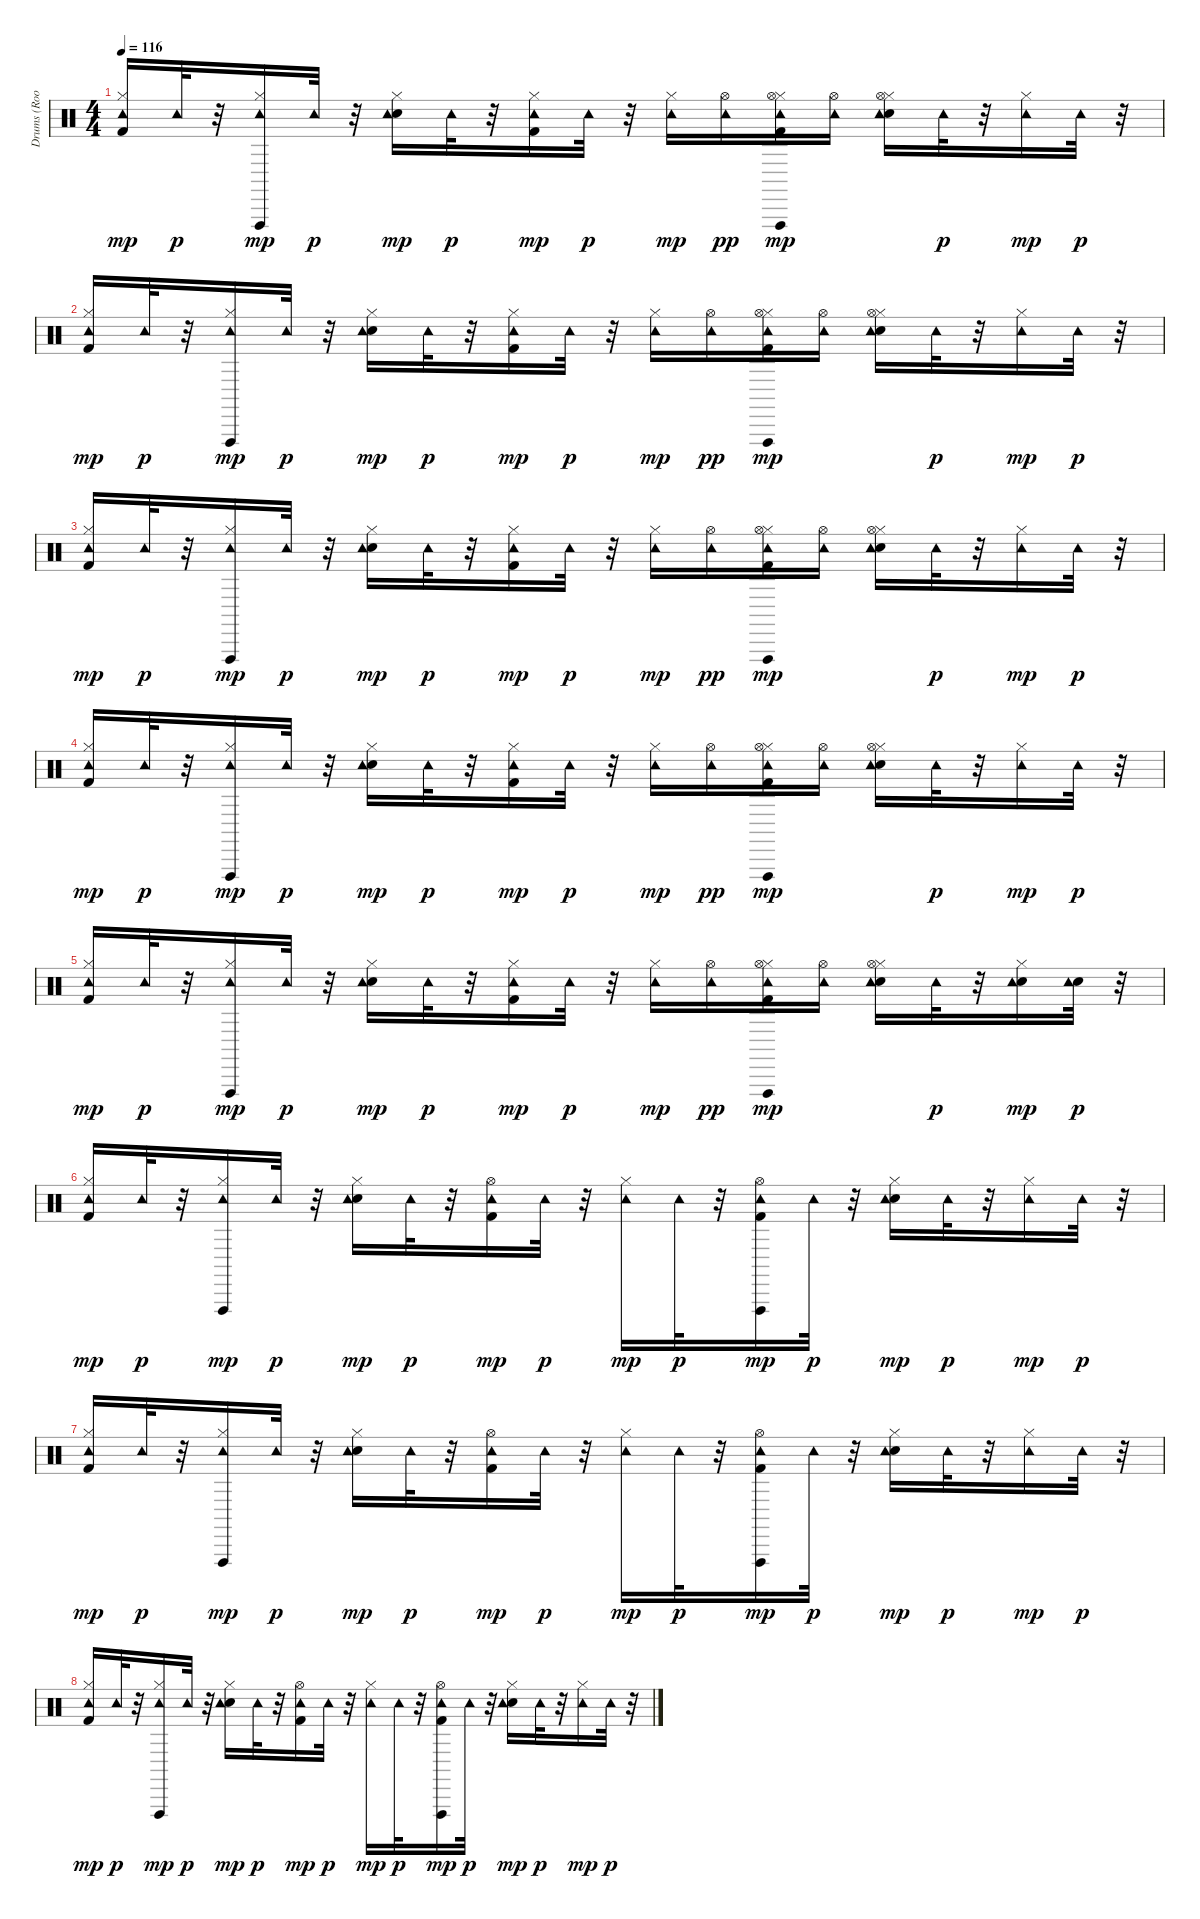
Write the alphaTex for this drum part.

\track ("Drums (Room Kit)    " "Drums (Roo") {instrument percussion}
\staff {score}
\articulation defaults
\ts (4 4)
\tempo 116
\clef neutral
\ks c
("Hi-Hat (closed)" "Kick (hit) 2" "Tambourine (hit)").16{dy mp} "Tambourine (hit)".32{dy p} r.32 ("Hi-Hat (closed)" "Tambourine (hit)" "Vibraslap (hit)").16{dy mp} "Tambourine (hit)".32{dy p} r.32 ("Hi-Hat (closed)" "Snare (hit) 2" "Tambourine (hit)").16{dy mp} "Tambourine (hit)".32{dy p} r.32 ("Hi-Hat (closed)" "Kick (hit) 2" "Tambourine (hit)").16{dy mp} "Tambourine (hit)".32{dy p} r.32 ("Hi-Hat (closed)" "Tambourine (hit)").16{dy mp} ("Tambourine (hit)" "Hi-Hat (open)").16{dy pp} ("Hi-Hat (closed)" "Kick (hit) 2" "Tambourine (hit)" "Hi-Hat (open)" "Vibraslap (hit)").16{dy mp} ("Tambourine (hit)" "Hi-Hat (open)").16 ("Hi-Hat (closed)" "Snare (hit) 2" "Tambourine (hit)" "Hi-Hat (open)").16 "Tambourine (hit)".32{dy p} r.32 ("Hi-Hat (closed)" "Tambourine (hit)").16{dy mp} "Tambourine (hit)".32{dy p} r.32 |
("Kick (hit) 2" "Hi-Hat (closed)" "Tambourine (hit)").16{dy mp} "Tambourine (hit)".32{dy p} r.32 ("Hi-Hat (closed)" "Tambourine (hit)" "Vibraslap (hit)").16{dy mp} "Tambourine (hit)".32{dy p} r.32 ("Snare (hit) 2" "Hi-Hat (closed)" "Tambourine (hit)").16{dy mp} "Tambourine (hit)".32{dy p} r.32 ("Kick (hit) 2" "Hi-Hat (closed)" "Tambourine (hit)").16{dy mp} "Tambourine (hit)".32{dy p} r.32 ("Hi-Hat (closed)" "Tambourine (hit)").16{dy mp} ("Tambourine (hit)" "Hi-Hat (open)").16{dy pp} ("Kick (hit) 2" "Hi-Hat (closed)" "Tambourine (hit)" "Hi-Hat (open)" "Vibraslap (hit)").16{dy mp} ("Tambourine (hit)" "Hi-Hat (open)").16 ("Snare (hit) 2" "Hi-Hat (closed)" "Tambourine (hit)" "Hi-Hat (open)").16 "Tambourine (hit)".32{dy p} r.32 ("Hi-Hat (closed)" "Tambourine (hit)").16{dy mp} "Tambourine (hit)".32{dy p} r.32 |
("Hi-Hat (closed)" "Kick (hit) 2" "Tambourine (hit)").16{dy mp} "Tambourine (hit)".32{dy p} r.32 ("Hi-Hat (closed)" "Tambourine (hit)" "Vibraslap (hit)").16{dy mp} "Tambourine (hit)".32{dy p} r.32 ("Hi-Hat (closed)" "Snare (hit) 2" "Tambourine (hit)").16{dy mp} "Tambourine (hit)".32{dy p} r.32 ("Hi-Hat (closed)" "Kick (hit) 2" "Tambourine (hit)").16{dy mp} "Tambourine (hit)".32{dy p} r.32 ("Hi-Hat (closed)" "Tambourine (hit)").16{dy mp} ("Tambourine (hit)" "Hi-Hat (open)").16{dy pp} ("Hi-Hat (closed)" "Kick (hit) 2" "Tambourine (hit)" "Hi-Hat (open)" "Vibraslap (hit)").16{dy mp} ("Tambourine (hit)" "Hi-Hat (open)").16 ("Hi-Hat (closed)" "Snare (hit) 2" "Tambourine (hit)" "Hi-Hat (open)").16 "Tambourine (hit)".32{dy p} r.32 ("Hi-Hat (closed)" "Tambourine (hit)").16{dy mp} "Tambourine (hit)".32{dy p} r.32 |
("Kick (hit) 2" "Hi-Hat (closed)" "Tambourine (hit)").16{dy mp} "Tambourine (hit)".32{dy p} r.32 ("Hi-Hat (closed)" "Tambourine (hit)" "Vibraslap (hit)").16{dy mp} "Tambourine (hit)".32{dy p} r.32 ("Snare (hit) 2" "Hi-Hat (closed)" "Tambourine (hit)").16{dy mp} "Tambourine (hit)".32{dy p} r.32 ("Kick (hit) 2" "Hi-Hat (closed)" "Tambourine (hit)").16{dy mp} "Tambourine (hit)".32{dy p} r.32 ("Hi-Hat (closed)" "Tambourine (hit)").16{dy mp} ("Tambourine (hit)" "Hi-Hat (open)").16{dy pp} ("Kick (hit) 2" "Hi-Hat (closed)" "Tambourine (hit)" "Hi-Hat (open)" "Vibraslap (hit)").16{dy mp} ("Tambourine (hit)" "Hi-Hat (open)").16 ("Snare (hit) 2" "Hi-Hat (closed)" "Tambourine (hit)" "Hi-Hat (open)").16 "Tambourine (hit)".32{dy p} r.32 ("Hi-Hat (closed)" "Tambourine (hit)").16{dy mp} "Tambourine (hit)".32{dy p} r.32 |
("Hi-Hat (closed)" "Kick (hit) 2" "Tambourine (hit)").16{dy mp} "Tambourine (hit)".32{dy p} r.32 ("Hi-Hat (closed)" "Tambourine (hit)" "Vibraslap (hit)").16{dy mp} "Tambourine (hit)".32{dy p} r.32 ("Hi-Hat (closed)" "Snare (hit) 2" "Tambourine (hit)").16{dy mp} "Tambourine (hit)".32{dy p} r.32 ("Hi-Hat (closed)" "Kick (hit) 2" "Tambourine (hit)").16{dy mp} "Tambourine (hit)".32{dy p} r.32 ("Hi-Hat (closed)" "Tambourine (hit)").16{dy mp} ("Tambourine (hit)" "Hi-Hat (open)").16{dy pp} ("Hi-Hat (closed)" "Kick (hit) 2" "Tambourine (hit)" "Hi-Hat (open)" "Vibraslap (hit)").16{dy mp} ("Tambourine (hit)" "Hi-Hat (open)").16 ("Hi-Hat (closed)" "Snare (hit) 2" "Tambourine (hit)" "Hi-Hat (open)").16 "Tambourine (hit)".32{dy p} r.32 ("Hi-Hat (closed)" "Snare (hit) 2" "Tambourine (hit)").16{dy mp} ("Snare (hit) 2" "Tambourine (hit)").32{dy p} r.32 |
("Kick (hit) 2" "Hi-Hat (closed)" "Tambourine (hit)").16{dy mp} "Tambourine (hit)".32{dy p} r.32 ("Hi-Hat (closed)" "Tambourine (hit)" "Vibraslap (hit)").16{dy mp} "Tambourine (hit)".32{dy p} r.32 ("Snare (hit) 2" "Hi-Hat (closed)" "Tambourine (hit)").16{dy mp} "Tambourine (hit)".32{dy p} r.32 ("Kick (hit) 2" "Tambourine (hit)" "Hi-Hat (open)").16{dy mp} "Tambourine (hit)".32{dy p} r.32 ("Hi-Hat (closed)" "Tambourine (hit)").16{dy mp} "Tambourine (hit)".32{dy p} r.32 ("Kick (hit) 2" "Tambourine (hit)" "Vibraslap (hit)" "Hi-Hat (open)").16{dy mp} "Tambourine (hit)".32{dy p} r.32 ("Snare (hit) 2" "Hi-Hat (closed)" "Tambourine (hit)").16{dy mp} "Tambourine (hit)".32{dy p} r.32 ("Hi-Hat (closed)" "Tambourine (hit)").16{dy mp} "Tambourine (hit)".32{dy p} r.32 |
("Hi-Hat (closed)" "Kick (hit) 2" "Tambourine (hit)").16{dy mp} "Tambourine (hit)".32{dy p} r.32 ("Hi-Hat (closed)" "Tambourine (hit)" "Vibraslap (hit)").16{dy mp} "Tambourine (hit)".32{dy p} r.32 ("Hi-Hat (closed)" "Snare (hit) 2" "Tambourine (hit)").16{dy mp} "Tambourine (hit)".32{dy p} r.32 ("Kick (hit) 2" "Tambourine (hit)" "Hi-Hat (open)").16{dy mp} "Tambourine (hit)".32{dy p} r.32 ("Hi-Hat (closed)" "Tambourine (hit)").16{dy mp} "Tambourine (hit)".32{dy p} r.32 ("Kick (hit) 2" "Tambourine (hit)" "Vibraslap (hit)" "Hi-Hat (open)").16{dy mp} "Tambourine (hit)".32{dy p} r.32 ("Hi-Hat (closed)" "Snare (hit) 2" "Tambourine (hit)").16{dy mp} "Tambourine (hit)".32{dy p} r.32 ("Hi-Hat (closed)" "Tambourine (hit)").16{dy mp} "Tambourine (hit)".32{dy p} r.32 |
("Kick (hit) 2" "Hi-Hat (closed)" "Tambourine (hit)").16{dy mp} "Tambourine (hit)".32{dy p} r.32 ("Hi-Hat (closed)" "Tambourine (hit)" "Vibraslap (hit)").16{dy mp} "Tambourine (hit)".32{dy p} r.32 ("Snare (hit) 2" "Hi-Hat (closed)" "Tambourine (hit)").16{dy mp} "Tambourine (hit)".32{dy p} r.32 ("Kick (hit) 2" "Tambourine (hit)" "Hi-Hat (open)").16{dy mp} "Tambourine (hit)".32{dy p} r.32 ("Hi-Hat (closed)" "Tambourine (hit)").16{dy mp} "Tambourine (hit)".32{dy p} r.32 ("Kick (hit) 2" "Tambourine (hit)" "Vibraslap (hit)" "Hi-Hat (open)").16{dy mp} "Tambourine (hit)".32{dy p} r.32 ("Snare (hit) 2" "Hi-Hat (closed)" "Tambourine (hit)").16{dy mp} "Tambourine (hit)".32{dy p} r.32 ("Hi-Hat (closed)" "Tambourine (hit)").16{dy mp} "Tambourine (hit)".32{dy p} r.32
